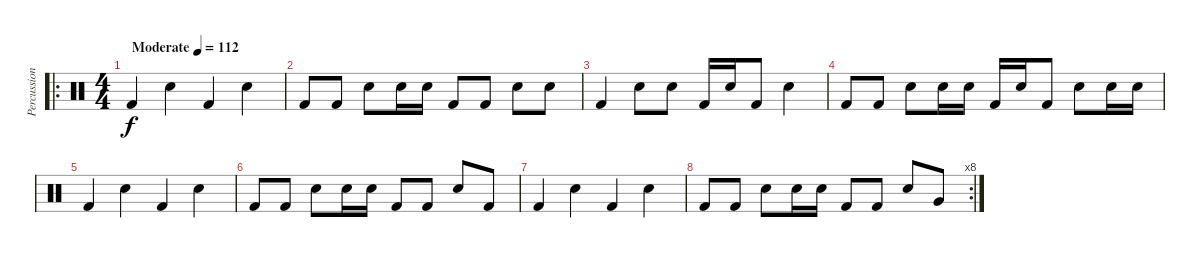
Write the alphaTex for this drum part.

\track ("Percussion" "Percussion") {instrument percussion}
\staff {score}
\articulation defaults
\ro
\ts (4 4)
\tempo (112 "Moderate")
\clef neutral
\ks c "Kick (hit) 2".4{dy f} "Electric Snare (hit)".4 "Kick (hit) 2".4 "Electric Snare (hit)".4
|
"Kick (hit) 2".8 "Kick (hit) 2".8 "Electric Snare (hit)".8 "Electric Snare (hit)".16 "Electric Snare (hit)".16 "Kick (hit) 2".8 "Kick (hit) 2".8 "Electric Snare (hit)".8 "Electric Snare (hit)".8 |
"Kick (hit) 2".4 "Electric Snare (hit)".8 "Electric Snare (hit)".8 "Kick (hit) 2".16 "Electric Snare (hit)".16 "Kick (hit) 2".8 "Electric Snare (hit)".4 |
"Kick (hit) 2".8 "Kick (hit) 2".8 "Electric Snare (hit)".8 "Electric Snare (hit)".16 "Electric Snare (hit)".16 "Kick (hit) 2".16 "Electric Snare (hit)".16 "Kick (hit) 2".8 "Electric Snare (hit)".8 "Electric Snare (hit)".16 "Electric Snare (hit)".16 |
"Kick (hit) 2".4 "Electric Snare (hit)".4 "Kick (hit) 2".4 "Electric Snare (hit)".4 |
"Kick (hit) 2".8 "Kick (hit) 2".8 "Electric Snare (hit)".8 "Electric Snare (hit)".16 "Electric Snare (hit)".16 "Kick (hit) 2".8 "Kick (hit) 2".8 "Electric Snare (hit)".8 "Kick (hit) 2".8 |
"Kick (hit) 2".4 "Electric Snare (hit)".4 "Kick (hit) 2".4 "Electric Snare (hit)".4 |
\rc 8 "Kick (hit) 2".8 "Kick (hit) 2".8 "Electric Snare (hit)".8 "Electric Snare (hit)".16 "Electric Snare (hit)".16 "Kick (hit) 2".8 "Kick (hit) 2".8 "Electric Snare (hit)".8 "Very Low Tom (hit)".8
